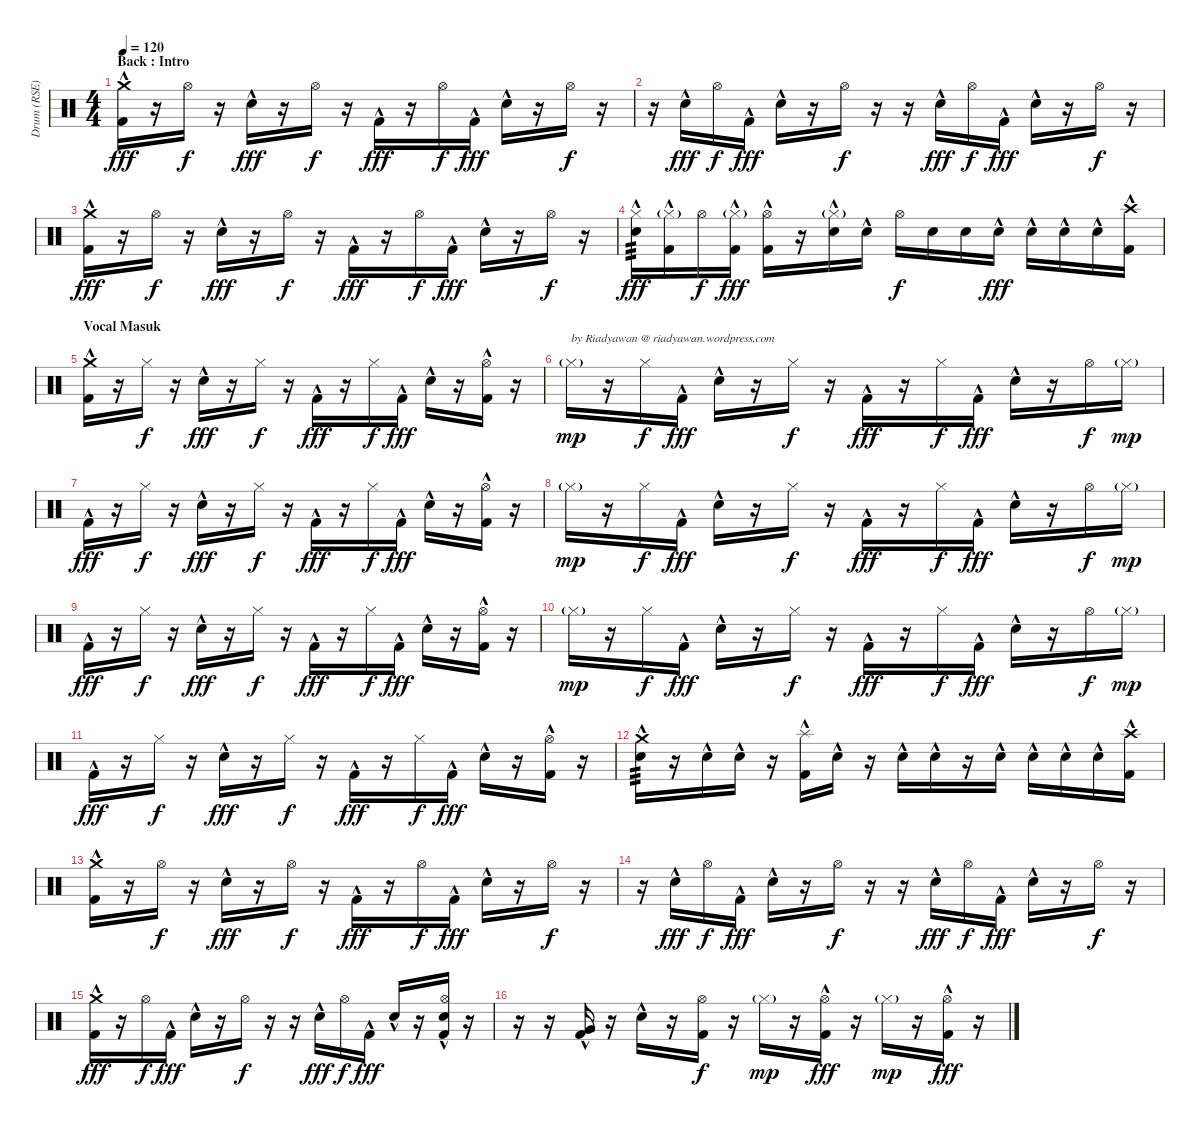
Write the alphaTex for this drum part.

\track ("Drum (RSE)" "Drum (RSE)") {instrument percussion}
\staff {score}
\articulation defaults
\ts (4 4)
\section ("" "Back : Intro")
\tempo 120
\clef neutral
\ks c
("Crash medium (hit)" "Kick (hit) 2"{hac}).16{dy fff} r.16 "Hi-Hat (open)".16{dy f} r.16 "Snare (hit) 2"{hac}.16{dy fff} r.16 "Hi-Hat (open)".16{dy f} r.16 "Kick (hit) 2"{hac}.16{dy fff} r.16 "Hi-Hat (open)".16{dy f} "Kick (hit) 2"{hac}.16{dy fff} "Snare (hit) 2"{hac}.16 r.16 "Hi-Hat (open)".16{dy f} r.16 |
r.16 "Snare (hit) 2"{hac}.16{dy fff} "Hi-Hat (open)".16{dy f} "Kick (hit) 2"{hac}.16{dy fff} "Snare (hit) 2"{hac}.16 r.16 "Hi-Hat (open)".16{dy f} r.16 r.16 "Snare (hit) 2"{hac}.16{dy fff} "Hi-Hat (open)".16{dy f} "Kick (hit) 2"{hac}.16{dy fff} "Snare (hit) 2"{hac}.16 r.16 "Hi-Hat (open)".16{dy f} r.16 |
("Crash medium (hit)" "Kick (hit) 2"{hac}).16{dy fff} r.16 "Hi-Hat (open)".16{dy f} r.16 "Snare (hit) 2"{hac}.16{dy fff} r.16 "Hi-Hat (open)".16{dy f} r.16 "Kick (hit) 2"{hac}.16{dy fff} r.16 "Hi-Hat (open)".16{dy f} "Kick (hit) 2"{hac}.16{dy fff} "Snare (hit) 2"{hac}.16 r.16 "Hi-Hat (open)".16{dy f} r.16 |
("Hi-Hat (closed)" "Snare (hit) 2"{hac}).16{tp 3 dy fff} ("Hi-Hat (closed)"{g} "Kick (hit) 2"{hac}).16 "Hi-Hat (open)".16{dy f} ("Hi-Hat (closed)"{g} "Kick (hit) 2"{hac}).16{dy fff} ("Hi-Hat (open)" "Kick (hit) 2"{hac}).16 r.16 ("Hi-Hat (closed)"{g} "Snare (hit) 2"{hac}).16 "Snare (hit) 2"{hac}.16 "Hi-Hat (open)".16{dy f} "Snare (hit) 2".16 "Snare (hit) 2".16 "Snare (hit) 2"{hac}.16{dy fff} "Snare (hit) 2"{hac}.16 "Snare (hit) 2"{hac}.16 "Snare (hit) 2"{hac}.16 ("Crash high (hit)" "Kick (hit) 2"{hac}).16 |
\section ("" "Vocal Masuk")
("Crash medium (hit)" "Kick (hit) 2"{hac}).16 r.16 "Hi-Hat (closed)".16{dy f} r.16 "Snare (hit) 2"{hac}.16{dy fff} r.16 "Hi-Hat (closed)".16{dy f} r.16 "Kick (hit) 2"{hac}.16{dy fff} r.16 "Hi-Hat (closed)".16{dy f} "Kick (hit) 2"{hac}.16{dy fff} "Snare (hit) 2"{hac}.16 r.16 ("Hi-Hat (open)" "Kick (hit) 2"{hac}).16 r.16 |
"Hi-Hat (closed)"{g}.16{txt "by Riadyawan @ riadyawan.wordpress.com" dy mp} r.16 "Hi-Hat (closed)".16{dy f} "Kick (hit) 2"{hac}.16{dy fff} "Snare (hit) 2"{hac}.16 r.16 "Hi-Hat (closed)".16{dy f} r.16 "Kick (hit) 2"{hac}.16{dy fff} r.16 "Hi-Hat (closed)".16{dy f} "Kick (hit) 2"{hac}.16{dy fff} "Snare (hit) 2"{hac}.16 r.16 "Hi-Hat (open)".16{dy f} "Hi-Hat (closed)"{g}.16{dy mp} |
"Kick (hit) 2"{hac}.16{dy fff} r.16 "Hi-Hat (closed)".16{dy f} r.16 "Snare (hit) 2"{hac}.16{dy fff} r.16 "Hi-Hat (closed)".16{dy f} r.16 "Kick (hit) 2"{hac}.16{dy fff} r.16 "Hi-Hat (closed)".16{dy f} "Kick (hit) 2"{hac}.16{dy fff} "Snare (hit) 2"{hac}.16 r.16 ("Hi-Hat (open)" "Kick (hit) 2"{hac}).16 r.16 |
"Hi-Hat (closed)"{g}.16{dy mp} r.16 "Hi-Hat (closed)".16{dy f} "Kick (hit) 2"{hac}.16{dy fff} "Snare (hit) 2"{hac}.16 r.16 "Hi-Hat (closed)".16{dy f} r.16 "Kick (hit) 2"{hac}.16{dy fff} r.16 "Hi-Hat (closed)".16{dy f} "Kick (hit) 2"{hac}.16{dy fff} "Snare (hit) 2"{hac}.16 r.16 "Hi-Hat (open)".16{dy f} "Hi-Hat (closed)"{g}.16{dy mp} |
"Kick (hit) 2"{hac}.16{dy fff} r.16 "Hi-Hat (closed)".16{dy f} r.16 "Snare (hit) 2"{hac}.16{dy fff} r.16 "Hi-Hat (closed)".16{dy f} r.16 "Kick (hit) 2"{hac}.16{dy fff} r.16 "Hi-Hat (closed)".16{dy f} "Kick (hit) 2"{hac}.16{dy fff} "Snare (hit) 2"{hac}.16 r.16 ("Hi-Hat (open)" "Kick (hit) 2"{hac}).16 r.16 |
"Hi-Hat (closed)"{g}.16{dy mp} r.16 "Hi-Hat (closed)".16{dy f} "Kick (hit) 2"{hac}.16{dy fff} "Snare (hit) 2"{hac}.16 r.16 "Hi-Hat (closed)".16{dy f} r.16 "Kick (hit) 2"{hac}.16{dy fff} r.16 "Hi-Hat (closed)".16{dy f} "Kick (hit) 2"{hac}.16{dy fff} "Snare (hit) 2"{hac}.16 r.16 "Hi-Hat (open)".16{dy f} "Hi-Hat (closed)"{g}.16{dy mp} |
"Kick (hit) 2"{hac}.16{dy fff} r.16 "Hi-Hat (closed)".16{dy f} r.16 "Snare (hit) 2"{hac}.16{dy fff} r.16 "Hi-Hat (closed)".16{dy f} r.16 "Kick (hit) 2"{hac}.16{dy fff} r.16 "Hi-Hat (closed)".16{dy f} "Kick (hit) 2"{hac}.16{dy fff} "Snare (hit) 2"{hac}.16 r.16 ("Hi-Hat (open)" "Kick (hit) 2"{hac}).16 r.16 |
("Crash medium (hit)" "Snare (hit) 2"{hac}).16{tp 3} r.16 "Snare (hit) 2"{hac}.16 "Snare (hit) 2"{hac}.16 r.16 ("Splash (hit)" "Kick (hit) 2"{hac}).16 "Snare (hit) 2"{hac}.16 r.16 "Snare (hit) 2"{hac}.16 "Snare (hit) 2"{hac}.16 r.16 "Snare (hit) 2"{hac}.16 "Snare (hit) 2"{hac}.16 "Snare (hit) 2"{hac}.16 "Snare (hit) 2"{hac}.16 ("Crash high (hit)" "Kick (hit) 2"{hac}).16 |
("Crash medium (hit)" "Kick (hit) 2"{hac}).16 r.16 "Hi-Hat (open)".16{dy f} r.16 "Snare (hit) 2"{hac}.16{dy fff} r.16 "Hi-Hat (open)".16{dy f} r.16 "Kick (hit) 2"{hac}.16{dy fff} r.16 "Hi-Hat (open)".16{dy f} "Kick (hit) 2"{hac}.16{dy fff} "Snare (hit) 2"{hac}.16 r.16 "Hi-Hat (open)".16{dy f} r.16 |
r.16 "Snare (hit) 2"{hac}.16{dy fff} "Hi-Hat (open)".16{dy f} "Kick (hit) 2"{hac}.16{dy fff} "Snare (hit) 2"{hac}.16 r.16 "Hi-Hat (open)".16{dy f} r.16 r.16 "Snare (hit) 2"{hac}.16{dy fff} "Hi-Hat (open)".16{dy f} "Kick (hit) 2"{hac}.16{dy fff} "Snare (hit) 2"{hac}.16 r.16 "Hi-Hat (open)".16{dy f} r.16 |
("Crash medium (hit)" "Kick (hit) 2"{hac}).16{dy fff} r.16 "Hi-Hat (open)".16{dy f} "Kick (hit) 2"{hac}.16{dy fff} "Snare (hit) 2"{hac}.16 r.16 "Hi-Hat (open)".16{dy f} r.16 r.16 "Snare (hit) 2"{hac}.16{dy fff} "Hi-Hat (open)".16{dy f} "Kick (hit) 2"{hac}.16{dy fff} "Snare (hit) 2"{hac}.16 r.16 ("Hi-Hat (open)" "Snare (hit) 2"{hac} "Kick (hit) 2"{hac}).16 r.16 |
r.16 r.16 ("Very Low Tom (hit)"{hac} "Kick (hit) 2"{hac}).16 r.16 "Snare (hit) 2"{hac}.16 r.16 ("Hi-Hat (open)" "Kick (hit) 2").16{dy f} r.16 "Hi-Hat (closed)"{g}.16{dy mp} r.16 ("Hi-Hat (open)" "Kick (hit) 2"{hac}).16{dy fff} r.16 "Hi-Hat (closed)"{g}.16{dy mp} r.16 ("Hi-Hat (open)" "Kick (hit) 2"{hac}).16{dy fff} r.16
